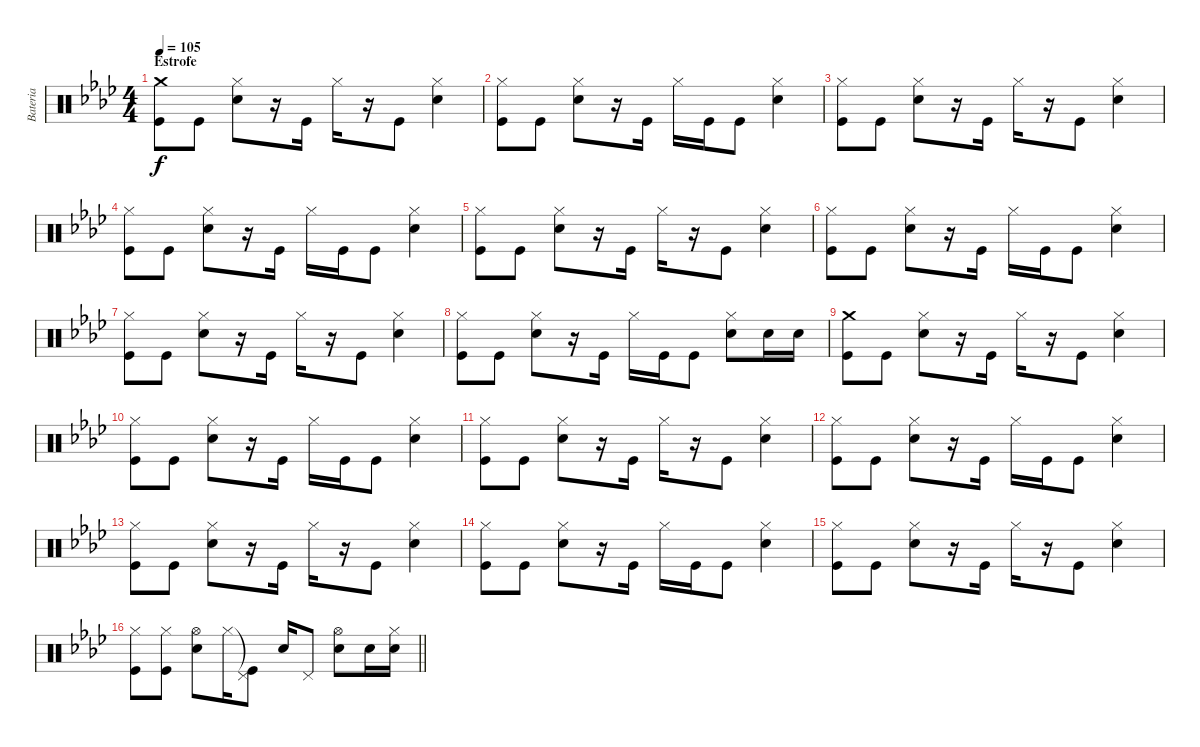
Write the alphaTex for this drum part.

\track ("Bateria" "Bateria") {instrument percussion}
\staff {score}
\articulation defaults
\ts (4 4)
\section ("" "Estrofe")
\tempo 105
\clef neutral
\ks fminor
("Crash medium (hit)" "Kick (hit)").8{dy f} "Kick (hit)".8 ("Hi-Hat (closed)" "Electric Snare (hit)").8 r.16 "Kick (hit)".16 "Hi-Hat (closed)".16 r.16 "Kick (hit)".8 ("Hi-Hat (closed)" "Electric Snare (hit)").4 |
("Hi-Hat (closed)" "Kick (hit)").8 "Kick (hit)".8 ("Hi-Hat (closed)" "Electric Snare (hit)").8 r.16 "Kick (hit)".16 "Hi-Hat (closed)".16 "Kick (hit)".16 "Kick (hit)".8 ("Hi-Hat (closed)" "Electric Snare (hit)").4 |
("Hi-Hat (closed)" "Kick (hit)").8 "Kick (hit)".8 ("Hi-Hat (closed)" "Electric Snare (hit)").8 r.16 "Kick (hit)".16 "Hi-Hat (closed)".16 r.16 "Kick (hit)".8 ("Hi-Hat (closed)" "Electric Snare (hit)").4 |
("Hi-Hat (closed)" "Kick (hit)").8 "Kick (hit)".8 ("Hi-Hat (closed)" "Electric Snare (hit)").8 r.16 "Kick (hit)".16 "Hi-Hat (closed)".16 "Kick (hit)".16 "Kick (hit)".8 ("Hi-Hat (closed)" "Electric Snare (hit)").4 |
("Hi-Hat (closed)" "Kick (hit)").8 "Kick (hit)".8 ("Hi-Hat (closed)" "Electric Snare (hit)").8 r.16 "Kick (hit)".16 "Hi-Hat (closed)".16 r.16 "Kick (hit)".8 ("Hi-Hat (closed)" "Electric Snare (hit)").4 |
("Hi-Hat (closed)" "Kick (hit)").8 "Kick (hit)".8 ("Hi-Hat (closed)" "Electric Snare (hit)").8 r.16 "Kick (hit)".16 "Hi-Hat (closed)".16 "Kick (hit)".16 "Kick (hit)".8 ("Hi-Hat (closed)" "Electric Snare (hit)").4 |
("Hi-Hat (closed)" "Kick (hit)").8 "Kick (hit)".8 ("Hi-Hat (closed)" "Electric Snare (hit)").8 r.16 "Kick (hit)".16 "Hi-Hat (closed)".16 r.16 "Kick (hit)".8 ("Hi-Hat (closed)" "Electric Snare (hit)").4 |
("Hi-Hat (closed)" "Kick (hit)").8 "Kick (hit)".8 ("Hi-Hat (closed)" "Electric Snare (hit)").8 r.16 "Kick (hit)".16 "Hi-Hat (closed)".16 "Kick (hit)".16 "Kick (hit)".8 ("Hi-Hat (closed)" "Electric Snare (hit)").8 "Electric Snare (hit)".16 "Electric Snare (hit)".16 |
("Crash medium (hit)" "Kick (hit)").8 "Kick (hit)".8 ("Hi-Hat (closed)" "Electric Snare (hit)").8 r.16 "Kick (hit)".16 "Hi-Hat (closed)".16 r.16 "Kick (hit)".8 ("Hi-Hat (closed)" "Electric Snare (hit)").4 |
("Hi-Hat (closed)" "Kick (hit)").8 "Kick (hit)".8 ("Hi-Hat (closed)" "Electric Snare (hit)").8 r.16 "Kick (hit)".16 "Hi-Hat (closed)".16 "Kick (hit)".16 "Kick (hit)".8 ("Hi-Hat (closed)" "Electric Snare (hit)").4 |
("Hi-Hat (closed)" "Kick (hit)").8 "Kick (hit)".8 ("Hi-Hat (closed)" "Electric Snare (hit)").8 r.16 "Kick (hit)".16 "Hi-Hat (closed)".16 r.16 "Kick (hit)".8 ("Hi-Hat (closed)" "Electric Snare (hit)").4 |
("Hi-Hat (closed)" "Kick (hit)").8 "Kick (hit)".8 ("Hi-Hat (closed)" "Electric Snare (hit)").8 r.16 "Kick (hit)".16 "Hi-Hat (closed)".16 "Kick (hit)".16 "Kick (hit)".8 ("Hi-Hat (closed)" "Electric Snare (hit)").4 |
("Hi-Hat (closed)" "Kick (hit)").8 "Kick (hit)".8 ("Hi-Hat (closed)" "Electric Snare (hit)").8 r.16 "Kick (hit)".16 "Hi-Hat (closed)".16 r.16 "Kick (hit)".8 ("Hi-Hat (closed)" "Electric Snare (hit)").4 |
("Hi-Hat (closed)" "Kick (hit)").8 "Kick (hit)".8 ("Hi-Hat (closed)" "Electric Snare (hit)").8 r.16 "Kick (hit)".16 "Hi-Hat (closed)".16 "Kick (hit)".16 "Kick (hit)".8 ("Hi-Hat (closed)" "Electric Snare (hit)").4 |
("Hi-Hat (closed)" "Kick (hit)").8 "Kick (hit)".8 ("Hi-Hat (closed)" "Electric Snare (hit)").8 r.16 "Kick (hit)".16 "Hi-Hat (closed)".16 r.16 "Kick (hit)".8 ("Hi-Hat (closed)" "Electric Snare (hit)").4 |
\barLineRight lightlight
("Hi-Hat (closed)" "Kick (hit)").8 ("Hi-Hat (closed)" "Kick (hit)").8 ("Hi-Hat (open)" "Electric Snare (hit)").8 "Hi-Hat (closed)".16 ("Pedal Hi-Hat (hit)"{t} "Kick (hit)").8 "Electric Snare (hit)".16 "Pedal Hi-Hat (hit)".8 ("Hi-Hat (open)" "Electric Snare (hit)").8 "Electric Snare (hit)".16 ("Hi-Hat (closed)" "Electric Snare (hit)").16
